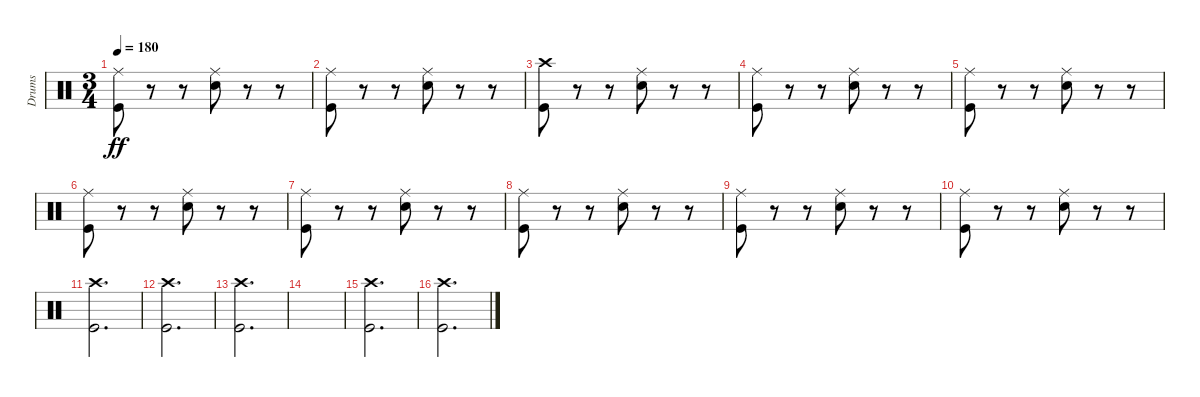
\track ("Drums" "Drums") {instrument percussion}
\staff {score}
\articulation defaults
\ts (3 4)
\tempo 180
\clef neutral
\ks c
("Ride (middle)" "Kick (hit)").8{dy ff} r.8 r.8 ("Ride (middle)" "Snare (hit) 2").8 r.8 r.8 |
("Ride (middle)" "Kick (hit)").8 r.8 r.8 ("Ride (middle)" "Snare (hit) 2").8 r.8 r.8 |
("Crash high (hit)" "Kick (hit)").8 r.8 r.8 ("Ride (middle)" "Snare (hit) 2").8 r.8 r.8 |
("Ride (middle)" "Kick (hit)").8 r.8 r.8 ("Ride (middle)" "Snare (hit) 2").8 r.8 r.8 |
("Ride (middle)" "Kick (hit)").8 r.8 r.8 ("Ride (middle)" "Snare (hit) 2").8 r.8 r.8 |
("Ride (middle)" "Kick (hit)").8 r.8 r.8 ("Ride (middle)" "Snare (hit) 2").8 r.8 r.8 |
("Ride (middle)" "Kick (hit)").8 r.8 r.8 ("Ride (middle)" "Snare (hit) 2").8 r.8 r.8 |
("Ride (middle)" "Kick (hit)").8 r.8 r.8 ("Ride (middle)" "Snare (hit) 2").8 r.8 r.8 |
("Ride (middle)" "Kick (hit)").8 r.8 r.8 ("Ride (middle)" "Snare (hit) 2").8 r.8 r.8 |
("Ride (middle)" "Kick (hit)").8 r.8 r.8 ("Ride (middle)" "Snare (hit) 2").8 r.8 r.8 |
("Crash high (hit)" "Kick (hit)").2{d} |
("Crash high (hit)" "Kick (hit)").2{d} |
("Crash high (hit)" "Kick (hit)").2{d} |
|
("Crash high (hit)" "Kick (hit)").2{d} |
("Crash high (hit)" "Kick (hit)").2{d}
